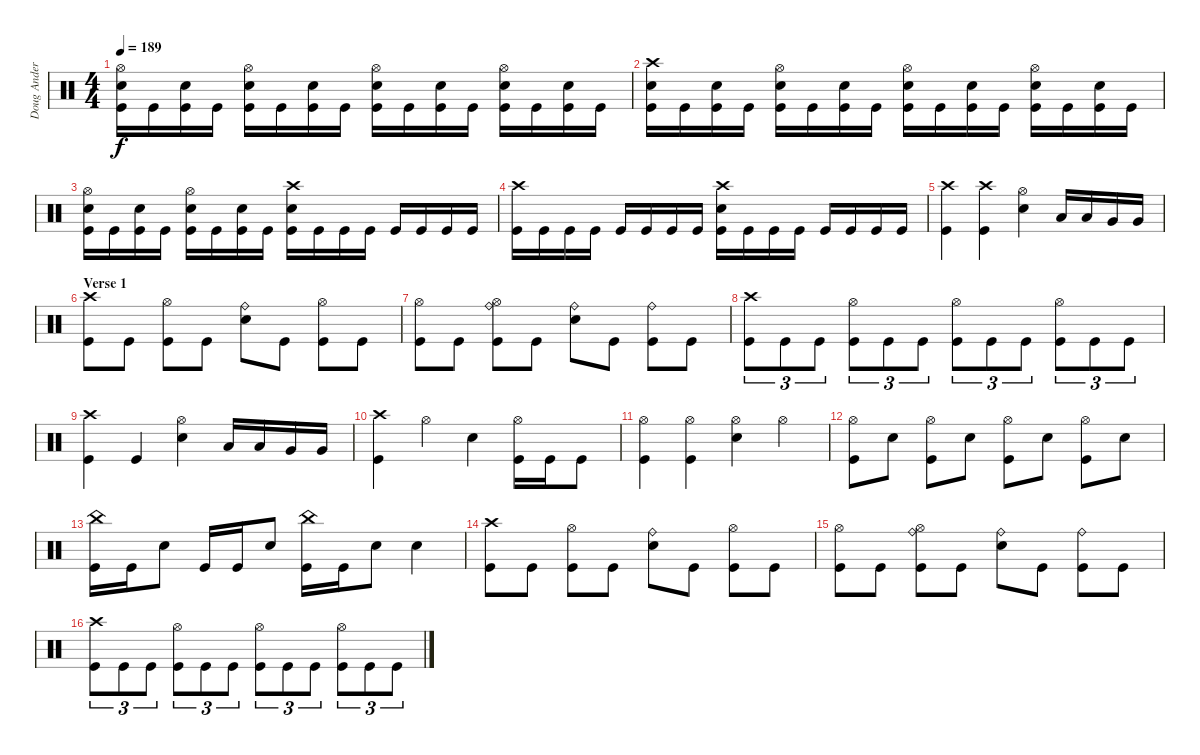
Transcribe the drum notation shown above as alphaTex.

\track ("Doug Anderson" "Doug Ander") {instrument percussion}
\staff {score}
\articulation defaults
\ts (4 4)
\tempo 189
\clef neutral
\ks c
("Kick (hit)" "Snare (hit) 2" "Hi-Hat (open)").16{dy f} "Kick (hit)".16 ("Kick (hit)" "Snare (hit) 2").16 "Kick (hit)".16 ("Kick (hit)" "Snare (hit) 2" "Hi-Hat (open)").16 "Kick (hit)".16 ("Kick (hit)" "Snare (hit) 2").16 "Kick (hit)".16 ("Kick (hit)" "Snare (hit) 2" "Hi-Hat (open)").16 "Kick (hit)".16 ("Kick (hit)" "Snare (hit) 2").16 "Kick (hit)".16 ("Kick (hit)" "Snare (hit) 2" "Hi-Hat (open)").16 "Kick (hit)".16 ("Kick (hit)" "Snare (hit) 2").16 "Kick (hit)".16 |
("Kick (hit)" "Snare (hit) 2" "Crash high (hit)").16 "Kick (hit)".16 ("Kick (hit)" "Snare (hit) 2").16 "Kick (hit)".16 ("Kick (hit)" "Snare (hit) 2" "Hi-Hat (open)").16 "Kick (hit)".16 ("Kick (hit)" "Snare (hit) 2").16 "Kick (hit)".16 ("Kick (hit)" "Snare (hit) 2" "Hi-Hat (open)").16 "Kick (hit)".16 ("Kick (hit)" "Snare (hit) 2").16 "Kick (hit)".16 ("Kick (hit)" "Snare (hit) 2" "Hi-Hat (open)").16 "Kick (hit)".16 ("Kick (hit)" "Snare (hit) 2").16 "Kick (hit)".16 |
("Kick (hit)" "Snare (hit) 2" "Hi-Hat (open)").16 "Kick (hit)".16 ("Kick (hit)" "Snare (hit) 2").16 "Kick (hit)".16 ("Kick (hit)" "Snare (hit) 2" "Hi-Hat (open)").16 "Kick (hit)".16 ("Kick (hit)" "Snare (hit) 2").16 "Kick (hit)".16 ("Snare (hit) 2" "Kick (hit)" "Crash high (hit)").16 "Kick (hit)".16 "Kick (hit)".16 "Kick (hit)".16 "Kick (hit)".16 "Kick (hit)".16 "Kick (hit)".16 "Kick (hit)".16 |
("Kick (hit)" "Crash high (hit)").16 "Kick (hit)".16 "Kick (hit)".16 "Kick (hit)".16 "Kick (hit)".16 "Kick (hit)".16 "Kick (hit)".16 "Kick (hit)".16 ("Snare (hit) 2" "Kick (hit)" "Crash high (hit)").16 "Kick (hit)".16 "Kick (hit)".16 "Kick (hit)".16 "Kick (hit)".16 "Kick (hit)".16 "Kick (hit)".16 "Kick (hit)".16 |
("Crash high (hit)" "Kick (hit)").4 ("Crash high (hit)" "Kick (hit)").4 ("Snare (hit) 2" "Hi-Hat (open)").4 "Low Tom (hit)".16 "Low Tom (hit)".16 "Very Low Tom (hit)".16 "Very Low Tom (hit)".16 |
\section ("" "Verse 1")
("Kick (hit)" "Crash high (hit)").8 "Kick (hit)".8 ("Kick (hit)" "Hi-Hat (open)").8 "Kick (hit)".8 ("Ride (bell)" "Snare (hit) 2").8 "Kick (hit)".8 ("Kick (hit)" "Hi-Hat (open)").8 "Kick (hit)".8 |
("Kick (hit)" "Hi-Hat (open)").8 "Kick (hit)".8 ("Kick (hit)" "Hi-Hat (open)" "Ride (bell)").8 "Kick (hit)".8 ("Ride (bell)" "Snare (hit) 2").8 "Kick (hit)".8 ("Kick (hit)" "Ride (bell)").8 "Kick (hit)".8 |
("Kick (hit)" "Crash high (hit)").8{tu (3 2)} "Kick (hit)".8{tu (3 2)} "Kick (hit)".8{tu (3 2)} ("Kick (hit)" "Hi-Hat (open)").8{tu (3 2)} "Kick (hit)".8{tu (3 2)} "Kick (hit)".8{tu (3 2)} ("Kick (hit)" "Hi-Hat (open)").8{tu (3 2)} "Kick (hit)".8{tu (3 2)} "Kick (hit)".8{tu (3 2)} ("Kick (hit)" "Hi-Hat (open)").8{tu (3 2)} "Kick (hit)".8{tu (3 2)} "Kick (hit)".8{tu (3 2)} |
("Crash high (hit)" "Kick (hit)").4 "Kick (hit)".4 ("Snare (hit) 2" "Hi-Hat (open)").4 "Low Tom (hit)".16 "Low Tom (hit)".16 "Very Low Tom (hit)".16 "Very Low Tom (hit)".16 |
("Kick (hit)" "Crash high (hit)").4 "Hi-Hat (open)".4 "Snare (hit) 2".4 ("Hi-Hat (open)" "Kick (hit)").16 "Kick (hit)".16 "Kick (hit)".8 |
("Kick (hit)" "Hi-Hat (open)").4 ("Kick (hit)" "Hi-Hat (open)").4 ("Hi-Hat (open)" "Snare (hit) 2").4 "Hi-Hat (open)".4 |
("Kick (hit)" "Hi-Hat (open)").8 "Snare (hit) 2".8 ("Kick (hit)" "Hi-Hat (open)").8 "Snare (hit) 2".8 ("Kick (hit)" "Hi-Hat (open)").8 "Snare (hit) 2".8 ("Kick (hit)" "Hi-Hat (open)").8 "Snare (hit) 2".8 |
("Kick (hit)" "China (hit)").16 "Kick (hit)".16 "Snare (hit) 2".8 "Kick (hit)".16 "Kick (hit)".16 "Snare (hit) 2".8 ("Kick (hit)" "China (hit)").16 "Kick (hit)".16 "Snare (hit) 2".8 "Snare (hit) 2".4 |
("Kick (hit)" "Crash high (hit)").8 "Kick (hit)".8 ("Kick (hit)" "Hi-Hat (open)").8 "Kick (hit)".8 ("Ride (bell)" "Snare (hit) 2").8 "Kick (hit)".8 ("Kick (hit)" "Hi-Hat (open)").8 "Kick (hit)".8 |
("Kick (hit)" "Hi-Hat (open)").8 "Kick (hit)".8 ("Kick (hit)" "Hi-Hat (open)" "Ride (bell)").8 "Kick (hit)".8 ("Ride (bell)" "Snare (hit) 2").8 "Kick (hit)".8 ("Kick (hit)" "Ride (bell)").8 "Kick (hit)".8 |
("Kick (hit)" "Crash high (hit)").8{tu (3 2)} "Kick (hit)".8{tu (3 2)} "Kick (hit)".8{tu (3 2)} ("Kick (hit)" "Hi-Hat (open)").8{tu (3 2)} "Kick (hit)".8{tu (3 2)} "Kick (hit)".8{tu (3 2)} ("Kick (hit)" "Hi-Hat (open)").8{tu (3 2)} "Kick (hit)".8{tu (3 2)} "Kick (hit)".8{tu (3 2)} ("Kick (hit)" "Hi-Hat (open)").8{tu (3 2)} "Kick (hit)".8{tu (3 2)} "Kick (hit)".8{tu (3 2)}
